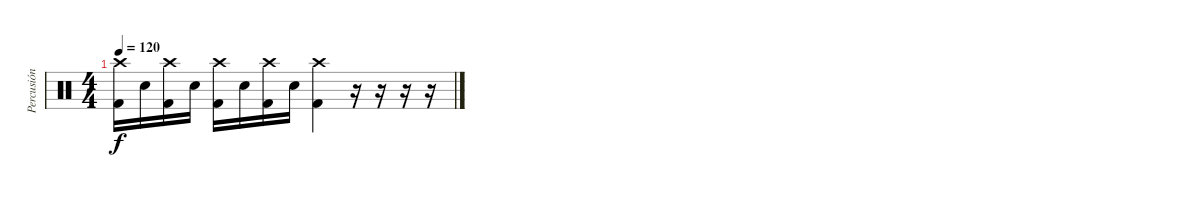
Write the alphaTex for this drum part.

\track ("Percusión" "Percusión") {instrument percussion}
\staff {score}
\articulation defaults
\ts (4 4)
\tempo 120
\clef neutral
\ks c
("Crash high (hit)" "Kick (hit) 2").16{dy f} "Electric Snare (hit)".16 ("Crash high (hit)" "Kick (hit) 2").16 "Electric Snare (hit)".16 ("Crash high (hit)" "Kick (hit) 2").16 "Electric Snare (hit)".16 ("Crash high (hit)" "Kick (hit) 2").16 "Electric Snare (hit)".16 ("Crash high (hit)" "Kick (hit) 2").4 r.16 r.16 r.16 r.16
